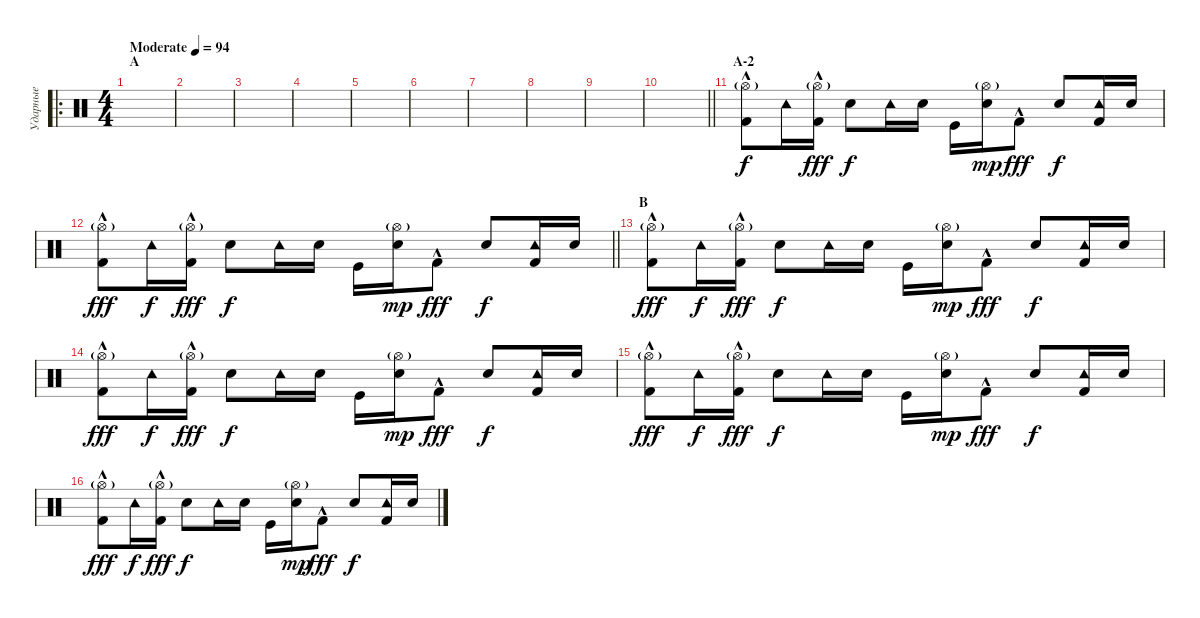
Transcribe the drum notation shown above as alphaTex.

\track ("Ударные" "Ударные") {instrument percussion}
\staff {score}
\articulation defaults
\ro
\ts (4 4)
\section ("" "A")
\tempo (94 "Moderate")
\clef neutral
\ks c
|
|
|
|
|
|
|
|
|
\barLineRight lightlight
|
\section ("" "A-2")
("Hi-Hat (open)"{g} "Kick (hit) 2"{hac}).8 "Tambourine (hit)".16{dy f} ("Hi-Hat (open)"{g} "Kick (hit) 2"{hac}).16{dy fff} "Electric Snare (hit)".8{dy f} "Tambourine (hit)".16 "Electric Snare (hit)".16 "Kick (hit)".16 ("Hi-Hat (open)"{g} "Electric Snare (hit)").16{dy mp} "Kick (hit) 2"{hac}.8{dy fff} "Electric Snare (hit)".8{dy f} ("Tambourine (hit)" "Kick (hit) 2").16 "Electric Snare (hit)".16 |
\barLineRight lightlight
("Hi-Hat (open)"{g} "Kick (hit) 2"{hac}).8{dy fff} "Tambourine (hit)".16{dy f} ("Hi-Hat (open)"{g} "Kick (hit) 2"{hac}).16{dy fff} "Electric Snare (hit)".8{dy f} "Tambourine (hit)".16 "Electric Snare (hit)".16 "Kick (hit)".16 ("Hi-Hat (open)"{g} "Electric Snare (hit)").16{dy mp} "Kick (hit) 2"{hac}.8{dy fff} "Electric Snare (hit)".8{dy f} ("Tambourine (hit)" "Kick (hit) 2").16 "Electric Snare (hit)".16 |
\section ("" "B")
("Hi-Hat (open)"{g} "Kick (hit) 2"{hac}).8{dy fff} "Tambourine (hit)".16{dy f} ("Hi-Hat (open)"{g} "Kick (hit) 2"{hac}).16{dy fff} "Electric Snare (hit)".8{dy f} "Tambourine (hit)".16 "Electric Snare (hit)".16 "Kick (hit)".16 ("Hi-Hat (open)"{g} "Electric Snare (hit)").16{dy mp} "Kick (hit) 2"{hac}.8{dy fff} "Electric Snare (hit)".8{dy f} ("Tambourine (hit)" "Kick (hit) 2").16 "Electric Snare (hit)".16 |
("Hi-Hat (open)"{g} "Kick (hit) 2"{hac}).8{dy fff} "Tambourine (hit)".16{dy f} ("Hi-Hat (open)"{g} "Kick (hit) 2"{hac}).16{dy fff} "Electric Snare (hit)".8{dy f} "Tambourine (hit)".16 "Electric Snare (hit)".16 "Kick (hit)".16 ("Hi-Hat (open)"{g} "Electric Snare (hit)").16{dy mp} "Kick (hit) 2"{hac}.8{dy fff} "Electric Snare (hit)".8{dy f} ("Tambourine (hit)" "Kick (hit) 2").16 "Electric Snare (hit)".16 |
("Hi-Hat (open)"{g} "Kick (hit) 2"{hac}).8{dy fff} "Tambourine (hit)".16{dy f} ("Hi-Hat (open)"{g} "Kick (hit) 2"{hac}).16{dy fff} "Electric Snare (hit)".8{dy f} "Tambourine (hit)".16 "Electric Snare (hit)".16 "Kick (hit)".16 ("Hi-Hat (open)"{g} "Electric Snare (hit)").16{dy mp} "Kick (hit) 2"{hac}.8{dy fff} "Electric Snare (hit)".8{dy f} ("Tambourine (hit)" "Kick (hit) 2").16 "Electric Snare (hit)".16 |
("Hi-Hat (open)"{g} "Kick (hit) 2"{hac}).8{dy fff} "Tambourine (hit)".16{dy f} ("Hi-Hat (open)"{g} "Kick (hit) 2"{hac}).16{dy fff} "Electric Snare (hit)".8{dy f} "Tambourine (hit)".16 "Electric Snare (hit)".16 "Kick (hit)".16 ("Hi-Hat (open)"{g} "Electric Snare (hit)").16{dy mp} "Kick (hit) 2"{hac}.8{dy fff} "Electric Snare (hit)".8{dy f} ("Tambourine (hit)" "Kick (hit) 2").16 "Electric Snare (hit)".16
